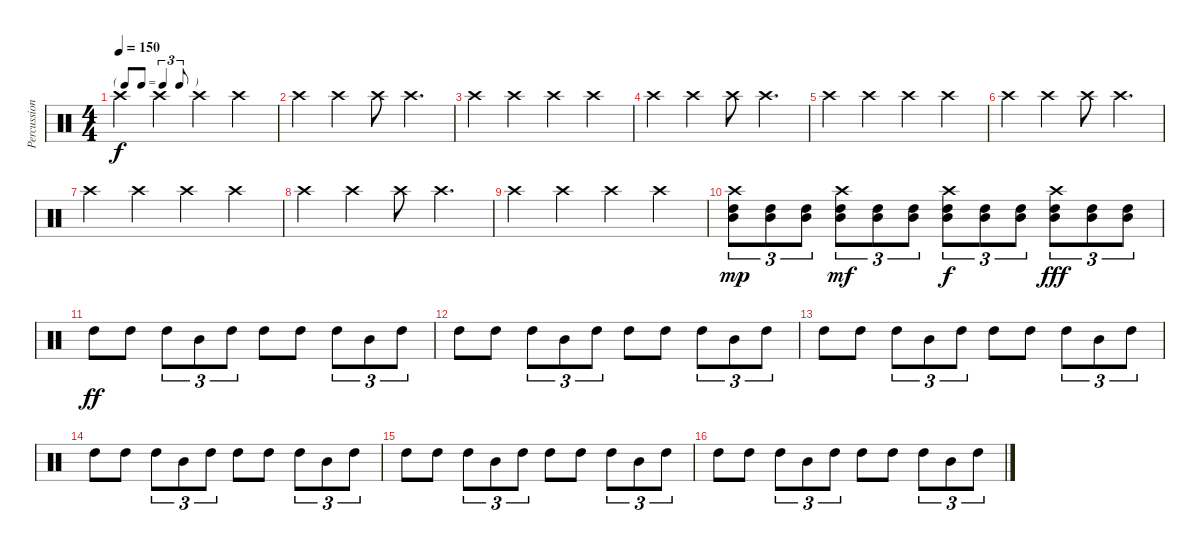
\track ("Percussion" "Percussion") {instrument percussion}
\staff {score}
\articulation defaults
\ts (4 4)
\tf triplet8th
\tempo 150
\clef neutral
\ks c "Crash high (hit)".4{dy f} "Crash high (hit)".4 "Crash high (hit)".4 "Crash high (hit)".4
|
"Crash high (hit)".4 "Crash high (hit)".4 "Crash high (hit)".8 "Crash high (hit)".4{d} |
"Crash high (hit)".4 "Crash high (hit)".4 "Crash high (hit)".4 "Crash high (hit)".4 |
"Crash high (hit)".4 "Crash high (hit)".4 "Crash high (hit)".8 "Crash high (hit)".4{d} |
"Crash high (hit)".4 "Crash high (hit)".4 "Crash high (hit)".4 "Crash high (hit)".4 |
"Crash high (hit)".4 "Crash high (hit)".4 "Crash high (hit)".8 "Crash high (hit)".4{d} |
"Crash high (hit)".4 "Crash high (hit)".4 "Crash high (hit)".4 "Crash high (hit)".4 |
"Crash high (hit)".4 "Crash high (hit)".4 "Crash high (hit)".8 "Crash high (hit)".4{d} |
"Crash high (hit)".4 "Crash high (hit)".4 "Crash high (hit)".4 "Crash high (hit)".4 |
("High Tom (hit)" "Mid Tom (hit)" "Crash high (hit)").8{tu (3 2) dy mp} ("High Tom (hit)" "Mid Tom (hit)").8{tu (3 2)} ("High Tom (hit)" "Mid Tom (hit)").8{tu (3 2)} ("High Tom (hit)" "Mid Tom (hit)" "Crash high (hit)").8{tu (3 2) dy mf} ("High Tom (hit)" "Mid Tom (hit)").8{tu (3 2)} ("High Tom (hit)" "Mid Tom (hit)").8{tu (3 2)} ("High Tom (hit)" "Mid Tom (hit)" "Crash high (hit)").8{tu (3 2) dy f} ("High Tom (hit)" "Mid Tom (hit)").8{tu (3 2)} ("High Tom (hit)" "Mid Tom (hit)").8{tu (3 2)} ("High Tom (hit)" "Mid Tom (hit)" "Crash high (hit)").8{tu (3 2) dy fff} ("High Tom (hit)" "Mid Tom (hit)").8{tu (3 2)} ("High Tom (hit)" "Mid Tom (hit)").8{tu (3 2)} |
"High Tom (hit)".8{dy ff} "High Tom (hit)".8 "High Tom (hit)".8{tu (3 2)} "Mid Tom (hit)".8{tu (3 2)} "High Tom (hit)".8{tu (3 2)} "High Tom (hit)".8 "High Tom (hit)".8 "High Tom (hit)".8{tu (3 2)} "Mid Tom (hit)".8{tu (3 2)} "High Tom (hit)".8{tu (3 2)} |
"High Tom (hit)".8 "High Tom (hit)".8 "High Tom (hit)".8{tu (3 2)} "Mid Tom (hit)".8{tu (3 2)} "High Tom (hit)".8{tu (3 2)} "High Tom (hit)".8 "High Tom (hit)".8 "High Tom (hit)".8{tu (3 2)} "Mid Tom (hit)".8{tu (3 2)} "High Tom (hit)".8{tu (3 2)} |
"High Tom (hit)".8 "High Tom (hit)".8 "High Tom (hit)".8{tu (3 2)} "Mid Tom (hit)".8{tu (3 2)} "High Tom (hit)".8{tu (3 2)} "High Tom (hit)".8 "High Tom (hit)".8 "High Tom (hit)".8{tu (3 2)} "Mid Tom (hit)".8{tu (3 2)} "High Tom (hit)".8{tu (3 2)} |
"High Tom (hit)".8 "High Tom (hit)".8 "High Tom (hit)".8{tu (3 2)} "Mid Tom (hit)".8{tu (3 2)} "High Tom (hit)".8{tu (3 2)} "High Tom (hit)".8 "High Tom (hit)".8 "High Tom (hit)".8{tu (3 2)} "Mid Tom (hit)".8{tu (3 2)} "High Tom (hit)".8{tu (3 2)} |
"High Tom (hit)".8 "High Tom (hit)".8 "High Tom (hit)".8{tu (3 2)} "Mid Tom (hit)".8{tu (3 2)} "High Tom (hit)".8{tu (3 2)} "High Tom (hit)".8 "High Tom (hit)".8 "High Tom (hit)".8{tu (3 2)} "Mid Tom (hit)".8{tu (3 2)} "High Tom (hit)".8{tu (3 2)} |
"High Tom (hit)".8 "High Tom (hit)".8 "High Tom (hit)".8{tu (3 2)} "Mid Tom (hit)".8{tu (3 2)} "High Tom (hit)".8{tu (3 2)} "High Tom (hit)".8 "High Tom (hit)".8 "High Tom (hit)".8{tu (3 2)} "Mid Tom (hit)".8{tu (3 2)} "High Tom (hit)".8{tu (3 2)}
